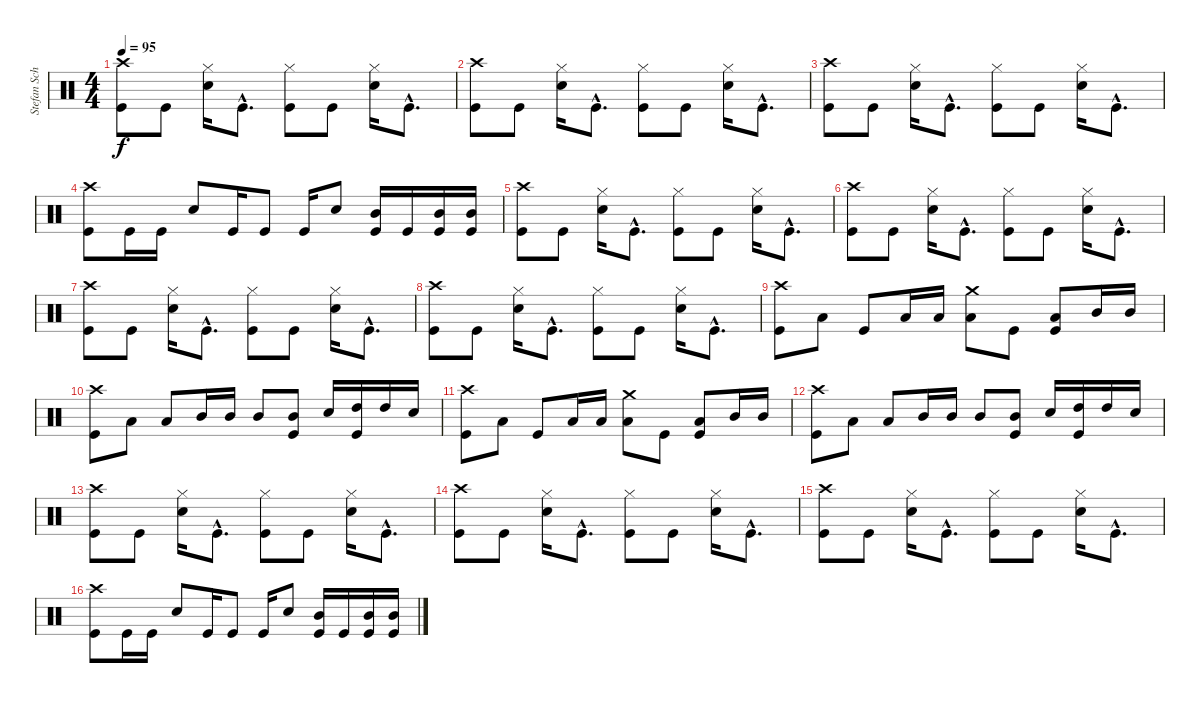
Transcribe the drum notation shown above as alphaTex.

\track ("Stefan Schwarzmann - -drums" "Stefan Sch") {instrument percussion}
\staff {score}
\articulation defaults
\ts (4 4)
\tempo 95
\clef neutral
\ks c
("Crash high (hit)" "Kick (hit)").8{dy f} "Kick (hit)".8 ("Hi-Hat (closed)" "Electric Snare (hit)").16 "Kick (hit)"{hac}.8{d} ("Hi-Hat (closed)" "Kick (hit)").8 "Kick (hit)".8 ("Hi-Hat (closed)" "Electric Snare (hit)").16 "Kick (hit)"{hac}.8{d} |
("Crash high (hit)" "Kick (hit)").8 "Kick (hit)".8 ("Hi-Hat (closed)" "Electric Snare (hit)").16 "Kick (hit)"{hac}.8{d} ("Hi-Hat (closed)" "Kick (hit)").8 "Kick (hit)".8 ("Hi-Hat (closed)" "Electric Snare (hit)").16 "Kick (hit)"{hac}.8{d} |
("Crash high (hit)" "Kick (hit)").8 "Kick (hit)".8 ("Hi-Hat (closed)" "Electric Snare (hit)").16 "Kick (hit)"{hac}.8{d} ("Hi-Hat (closed)" "Kick (hit)").8 "Kick (hit)".8 ("Hi-Hat (closed)" "Electric Snare (hit)").16 "Kick (hit)"{hac}.8{d} |
("Crash high (hit)" "Kick (hit)").8 "Kick (hit)".16 "Kick (hit)".16 "Electric Snare (hit)".8 "Kick (hit)".16 "Kick (hit)".8 "Kick (hit)".16 "Electric Snare (hit)".8 ("Mid Tom (hit)" "Kick (hit)").16 "Kick (hit)".16 ("Mid Tom (hit)" "Kick (hit)").16 ("Mid Tom (hit)" "Kick (hit)").16 |
("Crash high (hit)" "Kick (hit)").8 "Kick (hit)".8 ("Hi-Hat (closed)" "Electric Snare (hit)").16 "Kick (hit)"{hac}.8{d} ("Hi-Hat (closed)" "Kick (hit)").8 "Kick (hit)".8 ("Hi-Hat (closed)" "Electric Snare (hit)").16 "Kick (hit)"{hac}.8{d} |
("Crash high (hit)" "Kick (hit)").8 "Kick (hit)".8 ("Hi-Hat (closed)" "Electric Snare (hit)").16 "Kick (hit)"{hac}.8{d} ("Hi-Hat (closed)" "Kick (hit)").8 "Kick (hit)".8 ("Hi-Hat (closed)" "Electric Snare (hit)").16 "Kick (hit)"{hac}.8{d} |
("Crash high (hit)" "Kick (hit)").8 "Kick (hit)".8 ("Hi-Hat (closed)" "Electric Snare (hit)").16 "Kick (hit)"{hac}.8{d} ("Hi-Hat (closed)" "Kick (hit)").8 "Kick (hit)".8 ("Hi-Hat (closed)" "Electric Snare (hit)").16 "Kick (hit)"{hac}.8{d} |
("Crash high (hit)" "Kick (hit)").8 "Kick (hit)".8 ("Hi-Hat (closed)" "Electric Snare (hit)").16 "Kick (hit)"{hac}.8{d} ("Hi-Hat (closed)" "Kick (hit)").8 "Kick (hit)".8 ("Hi-Hat (closed)" "Electric Snare (hit)").16 "Kick (hit)"{hac}.8{d} |
("Crash high (hit)" "Kick (hit)").8 "Low Tom (hit)".8 "Kick (hit)".8 "Low Tom (hit)".16 "Low Tom (hit)".16 ("Crash medium (hit)" "Low Tom (hit)").8 "Kick (hit)".8 ("Low Tom (hit)" "Kick (hit)").8 "Mid Tom (hit)".16 "Mid Tom (hit)".16 |
("Crash high (hit)" "Kick (hit)").8 "Low Tom (hit)".8 "Low Tom (hit)".8 "Mid Tom (hit)".16 "Mid Tom (hit)".16 "Mid Tom (hit)".8 ("Mid Tom (hit)" "Kick (hit)").8 "Electric Snare (hit)".16 ("High Tom (hit)" "Kick (hit)").16 "High Tom (hit)".16 "Electric Snare (hit)".16 |
("Crash high (hit)" "Kick (hit)").8 "Low Tom (hit)".8 "Kick (hit)".8 "Low Tom (hit)".16 "Low Tom (hit)".16 ("Crash medium (hit)" "Low Tom (hit)").8 "Kick (hit)".8 ("Low Tom (hit)" "Kick (hit)").8 "Mid Tom (hit)".16 "Mid Tom (hit)".16 |
("Crash high (hit)" "Kick (hit)").8 "Low Tom (hit)".8 "Low Tom (hit)".8 "Mid Tom (hit)".16 "Mid Tom (hit)".16 "Mid Tom (hit)".8 ("Mid Tom (hit)" "Kick (hit)").8 "Electric Snare (hit)".16 ("High Tom (hit)" "Kick (hit)").16 "High Tom (hit)".16 "Electric Snare (hit)".16 |
("Crash high (hit)" "Kick (hit)").8 "Kick (hit)".8 ("Hi-Hat (closed)" "Electric Snare (hit)").16 "Kick (hit)"{hac}.8{d} ("Hi-Hat (closed)" "Kick (hit)").8 "Kick (hit)".8 ("Hi-Hat (closed)" "Electric Snare (hit)").16 "Kick (hit)"{hac}.8{d} |
("Crash high (hit)" "Kick (hit)").8 "Kick (hit)".8 ("Hi-Hat (closed)" "Electric Snare (hit)").16 "Kick (hit)"{hac}.8{d} ("Hi-Hat (closed)" "Kick (hit)").8 "Kick (hit)".8 ("Hi-Hat (closed)" "Electric Snare (hit)").16 "Kick (hit)"{hac}.8{d} |
("Crash high (hit)" "Kick (hit)").8 "Kick (hit)".8 ("Hi-Hat (closed)" "Electric Snare (hit)").16 "Kick (hit)"{hac}.8{d} ("Hi-Hat (closed)" "Kick (hit)").8 "Kick (hit)".8 ("Hi-Hat (closed)" "Electric Snare (hit)").16 "Kick (hit)"{hac}.8{d} |
("Crash high (hit)" "Kick (hit)").8 "Kick (hit)".16 "Kick (hit)".16 "Electric Snare (hit)".8 "Kick (hit)".16 "Kick (hit)".8 "Kick (hit)".16 "Electric Snare (hit)".8 ("Mid Tom (hit)" "Kick (hit)").16 "Kick (hit)".16 ("Mid Tom (hit)" "Kick (hit)").16 ("Mid Tom (hit)" "Kick (hit)").16
